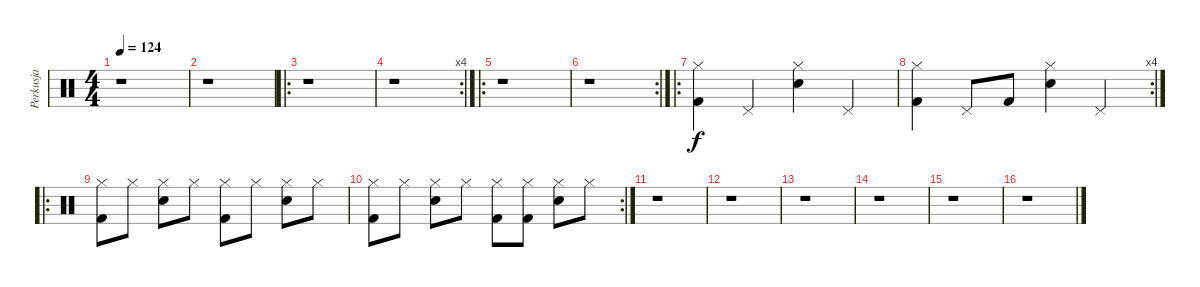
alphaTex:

\track ("Perkusja" "Perkusja") {instrument percussion}
\staff {score}
\articulation defaults
\ts (4 4)
\tempo 124
\clef neutral
\ks c
r.1{dy f} |
r.1 |
\ro
r.1 |
\rc 4
r.1 |
\ro
r.1 |
\rc 2
r.1 |
\ro
("Hi-Hat (closed)" "Kick (hit) 2").4 "Pedal Hi-Hat (hit)".4 ("Hi-Hat (closed)" "Snare (hit) 2").4 "Pedal Hi-Hat (hit)".4 |
\rc 4
("Hi-Hat (closed)" "Kick (hit) 2").4 "Pedal Hi-Hat (hit)".8 "Kick (hit) 2".8 ("Hi-Hat (closed)" "Snare (hit) 2").4 "Pedal Hi-Hat (hit)".4 |
\ro
("Hi-Hat (closed)" "Kick (hit) 2").8 "Hi-Hat (closed)".8 ("Hi-Hat (closed)" "Snare (hit) 2").8 "Hi-Hat (closed)".8 ("Hi-Hat (closed)" "Kick (hit) 2").8 "Hi-Hat (closed)".8 ("Hi-Hat (closed)" "Snare (hit) 2").8 "Hi-Hat (closed)".8 |
\rc 2
("Hi-Hat (closed)" "Kick (hit) 2").8 "Hi-Hat (closed)".8 ("Hi-Hat (closed)" "Snare (hit) 2").8 "Hi-Hat (closed)".8 ("Hi-Hat (closed)" "Kick (hit) 2").8 ("Hi-Hat (closed)" "Kick (hit) 2").8 ("Hi-Hat (closed)" "Snare (hit) 2").8 "Hi-Hat (closed)".8 |
r.1 |
r.1 |
r.1 |
r.1 |
r.1 |
r.1
